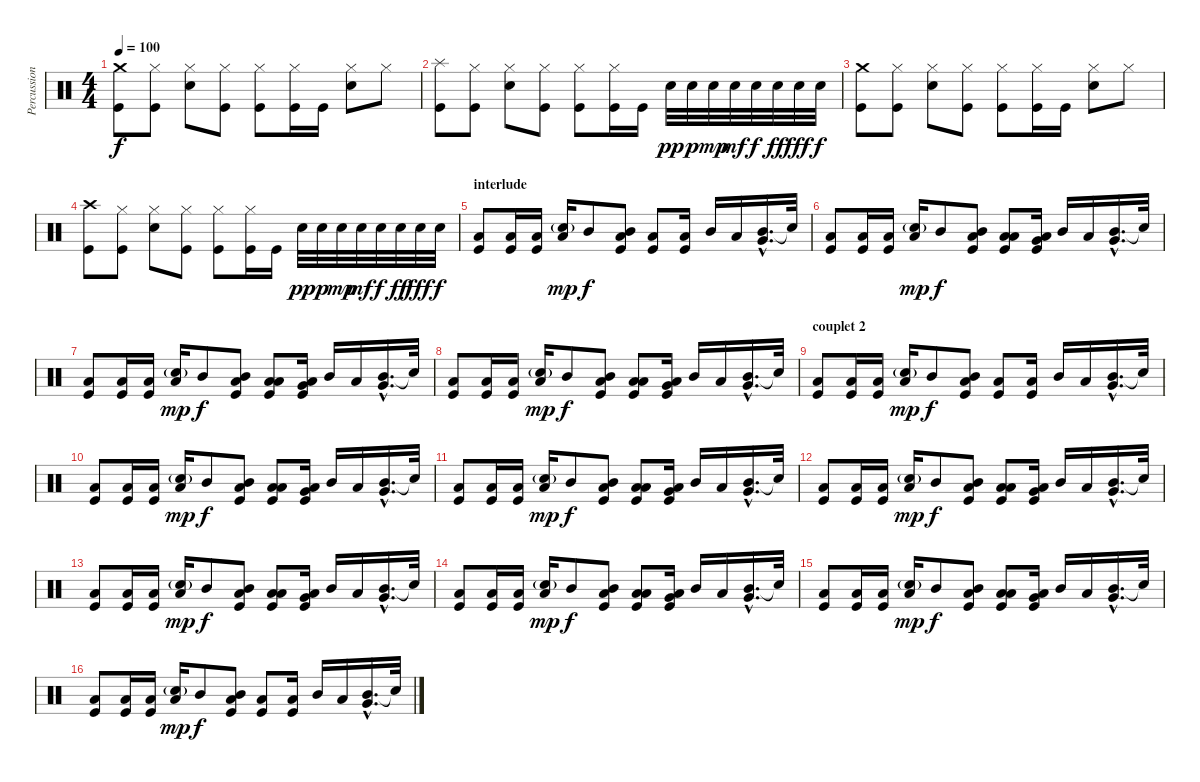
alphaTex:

\track ("Percussions" "Percussion") {instrument percussion}
\staff {score}
\articulation defaults
\ts (4 4)
\tempo 100
\clef neutral
\ks c
("Crash medium (hit)" "Kick (hit)").8{dy f} ("Hi-Hat (closed)" "Kick (hit)").8 ("Hi-Hat (closed)" "Electric Snare (hit)").8 ("Hi-Hat (closed)" "Kick (hit)").8 ("Hi-Hat (closed)" "Kick (hit)").8 ("Hi-Hat (closed)" "Kick (hit)").16 "Kick (hit)".16 ("Hi-Hat (closed)" "Electric Snare (hit)").8 "Hi-Hat (closed)".8 |
("Splash (hit)" "Kick (hit)").8 ("Hi-Hat (closed)" "Kick (hit)").8 ("Hi-Hat (closed)" "Electric Snare (hit)").8 ("Hi-Hat (closed)" "Kick (hit)").8 ("Hi-Hat (closed)" "Kick (hit)").8 ("Hi-Hat (closed)" "Kick (hit)").16 "Kick (hit)".16 "Electric Snare (hit)".32{dy pp} "Electric Snare (hit)".32{dy p} "Electric Snare (hit)".32{dy mp} "Electric Snare (hit)".32{dy mf} "Electric Snare (hit)".32{dy f} "Electric Snare (hit)".32{dy ff} "Electric Snare (hit)".32{dy fff} "Electric Snare (hit)".32{dy f} |
("Crash medium (hit)" "Kick (hit)").8 ("Hi-Hat (closed)" "Kick (hit)").8 ("Hi-Hat (closed)" "Electric Snare (hit)").8 ("Hi-Hat (closed)" "Kick (hit)").8 ("Hi-Hat (closed)" "Kick (hit)").8 ("Hi-Hat (closed)" "Kick (hit)").16 "Kick (hit)".16 ("Hi-Hat (closed)" "Electric Snare (hit)").8 "Hi-Hat (closed)".8 |
("Crash high (hit)" "Kick (hit)").8 ("Hi-Hat (closed)" "Kick (hit)").8 ("Hi-Hat (closed)" "Electric Snare (hit)").8 ("Hi-Hat (closed)" "Kick (hit)").8 ("Hi-Hat (closed)" "Kick (hit)").8 ("Hi-Hat (closed)" "Kick (hit)").16 "Kick (hit)".16 "Electric Snare (hit)".32{dy pp} "Electric Snare (hit)".32{dy p} "Electric Snare (hit)".32{dy mp} "Electric Snare (hit)".32{dy mf} "Electric Snare (hit)".32{dy f} "Electric Snare (hit)".32{dy ff} "Electric Snare (hit)".32{dy fff} "Electric Snare (hit)".32{dy f} |
\section ("" "interlude")
("Kick (hit)" "Low Floor Tom (hit)").8 ("Kick (hit)" "Low Floor Tom (hit)").16 ("Kick (hit)" "Low Floor Tom (hit)").16 ("Electric Snare (hit)"{g} "Low Tom (hit)").16{dy mp} "Mid Tom (hit)".8{dy f} ("Mid Tom (hit)" "Kick (hit)" "Low Floor Tom (hit)").8 ("Kick (hit)" "Low Floor Tom (hit)").8 ("Kick (hit)" "Low Floor Tom (hit)").16 "Mid Tom (hit)".16 "Low Tom (hit)".16 ("Mid Tom (hit)"{hac} "Very Low Tom (hit)"{hac}).16{d} "Snare (hit)"{t}.32 |
("Kick (hit)" "Low Floor Tom (hit)").8 ("Kick (hit)" "Low Floor Tom (hit)").16 ("Kick (hit)" "Low Floor Tom (hit)").16 ("Electric Snare (hit)"{g} "Low Tom (hit)").16{dy mp} "Mid Tom (hit)".8{dy f balance 0} ("Mid Tom (hit)" "Kick (hit)" "Low Floor Tom (hit)").8{balance 16} ("Low Tom (hit)" "Kick (hit)" "Low Floor Tom (hit)").8{balance 0} ("Very Low Tom (hit)" "Kick (hit)" "Low Floor Tom (hit)").16{balance 16} "Mid Tom (hit)".16{balance 16} "Low Tom (hit)".16{balance 0} ("Mid Tom (hit)"{hac} "Very Low Tom (hit)"{hac}).16{d volume 13 balance 8} "Snare (hit)"{t}.32 |
("Kick (hit)" "Low Floor Tom (hit)").8 ("Kick (hit)" "Low Floor Tom (hit)").16 ("Kick (hit)" "Low Floor Tom (hit)").16 ("Electric Snare (hit)"{g} "Low Tom (hit)").16{dy mp} "Mid Tom (hit)".8{dy f balance 0} ("Mid Tom (hit)" "Kick (hit)" "Low Floor Tom (hit)").8{balance 16} ("Low Tom (hit)" "Kick (hit)" "Low Floor Tom (hit)").8{balance 0} ("Very Low Tom (hit)" "Kick (hit)" "Low Floor Tom (hit)").16{balance 16} "Mid Tom (hit)".16{balance 16} "Low Tom (hit)".16{balance 0} ("Mid Tom (hit)"{hac} "Very Low Tom (hit)"{hac}).16{d volume 13 balance 8} "Snare (hit)"{t}.32 |
("Kick (hit)" "Low Floor Tom (hit)").8 ("Kick (hit)" "Low Floor Tom (hit)").16 ("Kick (hit)" "Low Floor Tom (hit)").16 ("Electric Snare (hit)"{g} "Low Tom (hit)").16{dy mp} "Mid Tom (hit)".8{dy f balance 0} ("Mid Tom (hit)" "Kick (hit)" "Low Floor Tom (hit)").8{balance 16} ("Low Tom (hit)" "Kick (hit)" "Low Floor Tom (hit)").8{balance 0} ("Very Low Tom (hit)" "Kick (hit)" "Low Floor Tom (hit)").16{balance 16} "Mid Tom (hit)".16{balance 16} "Low Tom (hit)".16{balance 0} ("Mid Tom (hit)"{hac} "Very Low Tom (hit)"{hac}).16{d volume 13 balance 8} "Snare (hit)"{t}.32 |
\section ("" "couplet 2")
("Kick (hit)" "Low Floor Tom (hit)").8 ("Kick (hit)" "Low Floor Tom (hit)").16 ("Kick (hit)" "Low Floor Tom (hit)").16 ("Electric Snare (hit)"{g} "Low Tom (hit)").16{dy mp} "Mid Tom (hit)".8{dy f} ("Mid Tom (hit)" "Kick (hit)" "Low Floor Tom (hit)").8 ("Kick (hit)" "Low Floor Tom (hit)").8 ("Kick (hit)" "Low Floor Tom (hit)").16 "Mid Tom (hit)".16 "Low Tom (hit)".16 ("Mid Tom (hit)"{hac} "Very Low Tom (hit)"{hac}).16{d} "Snare (hit)"{t}.32 |
("Kick (hit)" "Low Floor Tom (hit)").8 ("Kick (hit)" "Low Floor Tom (hit)").16 ("Kick (hit)" "Low Floor Tom (hit)").16 ("Electric Snare (hit)"{g} "Low Tom (hit)").16{dy mp} "Mid Tom (hit)".8{dy f balance 0} ("Mid Tom (hit)" "Kick (hit)" "Low Floor Tom (hit)").8{balance 16} ("Low Tom (hit)" "Kick (hit)" "Low Floor Tom (hit)").8{balance 0} ("Very Low Tom (hit)" "Kick (hit)" "Low Floor Tom (hit)").16{balance 16} "Mid Tom (hit)".16{balance 16} "Low Tom (hit)".16{balance 0} ("Mid Tom (hit)"{hac} "Very Low Tom (hit)"{hac}).16{d volume 13 balance 8} "Snare (hit)"{t}.32 |
("Kick (hit)" "Low Floor Tom (hit)").8 ("Kick (hit)" "Low Floor Tom (hit)").16 ("Kick (hit)" "Low Floor Tom (hit)").16 ("Electric Snare (hit)"{g} "Low Tom (hit)").16{dy mp} "Mid Tom (hit)".8{dy f balance 0} ("Mid Tom (hit)" "Kick (hit)" "Low Floor Tom (hit)").8{balance 16} ("Low Tom (hit)" "Kick (hit)" "Low Floor Tom (hit)").8{balance 0} ("Very Low Tom (hit)" "Kick (hit)" "Low Floor Tom (hit)").16{balance 16} "Mid Tom (hit)".16{balance 16} "Low Tom (hit)".16{balance 0} ("Mid Tom (hit)"{hac} "Very Low Tom (hit)"{hac}).16{d volume 13 balance 8} "Snare (hit)"{t}.32 |
("Kick (hit)" "Low Floor Tom (hit)").8 ("Kick (hit)" "Low Floor Tom (hit)").16 ("Kick (hit)" "Low Floor Tom (hit)").16 ("Electric Snare (hit)"{g} "Low Tom (hit)").16{dy mp} "Mid Tom (hit)".8{dy f balance 0} ("Mid Tom (hit)" "Kick (hit)" "Low Floor Tom (hit)").8{balance 16} ("Low Tom (hit)" "Kick (hit)" "Low Floor Tom (hit)").8{balance 0} ("Very Low Tom (hit)" "Kick (hit)" "Low Floor Tom (hit)").16{balance 16} "Mid Tom (hit)".16{balance 16} "Low Tom (hit)".16{balance 0} ("Mid Tom (hit)"{hac} "Very Low Tom (hit)"{hac}).16{d volume 13 balance 8} "Snare (hit)"{t}.32 |
("Kick (hit)" "Low Floor Tom (hit)").8 ("Kick (hit)" "Low Floor Tom (hit)").16 ("Kick (hit)" "Low Floor Tom (hit)").16 ("Electric Snare (hit)"{g} "Low Tom (hit)").16{dy mp} "Mid Tom (hit)".8{dy f balance 0} ("Mid Tom (hit)" "Kick (hit)" "Low Floor Tom (hit)").8{balance 16} ("Low Tom (hit)" "Kick (hit)" "Low Floor Tom (hit)").8{balance 0} ("Very Low Tom (hit)" "Kick (hit)" "Low Floor Tom (hit)").16{balance 16} "Mid Tom (hit)".16{balance 16} "Low Tom (hit)".16{balance 0} ("Mid Tom (hit)"{hac} "Very Low Tom (hit)"{hac}).16{d volume 13 balance 8} "Snare (hit)"{t}.32 |
("Kick (hit)" "Low Floor Tom (hit)").8 ("Kick (hit)" "Low Floor Tom (hit)").16 ("Kick (hit)" "Low Floor Tom (hit)").16 ("Electric Snare (hit)"{g} "Low Tom (hit)").16{dy mp} "Mid Tom (hit)".8{dy f balance 0} ("Mid Tom (hit)" "Kick (hit)" "Low Floor Tom (hit)").8{balance 16} ("Low Tom (hit)" "Kick (hit)" "Low Floor Tom (hit)").8{balance 0} ("Very Low Tom (hit)" "Kick (hit)" "Low Floor Tom (hit)").16{balance 16} "Mid Tom (hit)".16{balance 16} "Low Tom (hit)".16{balance 0} ("Mid Tom (hit)"{hac} "Very Low Tom (hit)"{hac}).16{d volume 13 balance 8} "Snare (hit)"{t}.32 |
("Kick (hit)" "Low Floor Tom (hit)").8 ("Kick (hit)" "Low Floor Tom (hit)").16 ("Kick (hit)" "Low Floor Tom (hit)").16 ("Electric Snare (hit)"{g} "Low Tom (hit)").16{dy mp} "Mid Tom (hit)".8{dy f balance 0} ("Mid Tom (hit)" "Kick (hit)" "Low Floor Tom (hit)").8{balance 16} ("Low Tom (hit)" "Kick (hit)" "Low Floor Tom (hit)").8{balance 0} ("Very Low Tom (hit)" "Kick (hit)" "Low Floor Tom (hit)").16{balance 16} "Mid Tom (hit)".16{balance 16} "Low Tom (hit)".16{balance 0} ("Mid Tom (hit)"{hac} "Very Low Tom (hit)"{hac}).16{d volume 13 balance 8} "Snare (hit)"{t}.32 |
("Kick (hit)" "Low Floor Tom (hit)").8 ("Kick (hit)" "Low Floor Tom (hit)").16 ("Kick (hit)" "Low Floor Tom (hit)").16 ("Electric Snare (hit)"{g} "Low Tom (hit)").16{dy mp} "Mid Tom (hit)".8{dy f} ("Mid Tom (hit)" "Kick (hit)" "Low Floor Tom (hit)").8 ("Kick (hit)" "Low Floor Tom (hit)").8 ("Kick (hit)" "Low Floor Tom (hit)").16 "Mid Tom (hit)".16 "Low Tom (hit)".16 ("Mid Tom (hit)"{hac} "Very Low Tom (hit)"{hac}).16{d} "Snare (hit)"{t}.32
